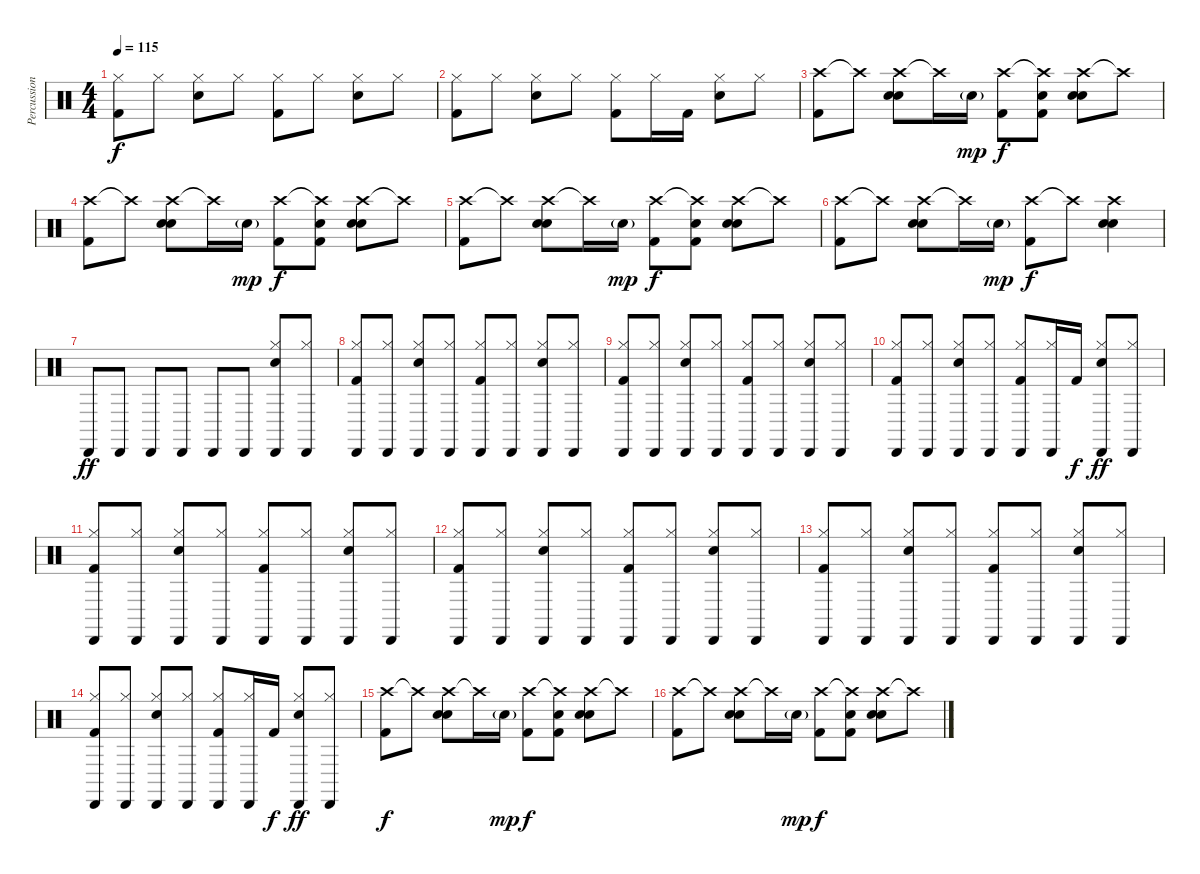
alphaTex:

\track ("Percussion" "Percussion") {instrument percussion}
\staff {score}
\articulation defaults
\ts (4 4)
\tempo 115
\clef neutral
\ks c
("Hi-Hat (closed)" "Kick (hit) 2").8{dy f} "Hi-Hat (closed)".8 ("Hi-Hat (closed)" "Snare (hit) 2").8 "Hi-Hat (closed)".8 ("Hi-Hat (closed)" "Kick (hit) 2").8 "Hi-Hat (closed)".8 ("Hi-Hat (closed)" "Snare (hit) 2").8 "Hi-Hat (closed)".8 |
("Hi-Hat (closed)" "Kick (hit) 2").8 "Hi-Hat (closed)".8 ("Hi-Hat (closed)" "Snare (hit) 2").8 "Hi-Hat (closed)".8 ("Hi-Hat (closed)" "Kick (hit) 2").8 "Hi-Hat (closed)".16 "Kick (hit) 2".16 ("Hi-Hat (closed)" "Snare (hit) 2").8 "Hi-Hat (closed)".8 |
("Crash high (hit)" "Kick (hit) 2").8 "Crash high (hit)"{t}.8 ("Crash high (hit)" "Hand Clap (hit)" "Snare (hit) 2").8 "Crash high (hit)"{t}.16 "Snare (hit) 2"{g}.16{dy mp} ("Crash high (hit)" "Kick (hit) 2").8{dy f} ("Crash high (hit)"{t} "Hand Clap (hit)" "Kick (hit) 2").8 ("Crash high (hit)" "Hand Clap (hit)" "Snare (hit) 2").8 "Crash high (hit)"{t}.8 |
("Crash high (hit)" "Kick (hit) 2").8 "Crash high (hit)"{t}.8 ("Crash high (hit)" "Hand Clap (hit)" "Snare (hit) 2").8 "Crash high (hit)"{t}.16 "Snare (hit) 2"{g}.16{dy mp} ("Crash high (hit)" "Kick (hit) 2").8{dy f} ("Crash high (hit)"{t} "Hand Clap (hit)" "Kick (hit) 2").8 ("Crash high (hit)" "Hand Clap (hit)" "Snare (hit) 2").8 "Crash high (hit)"{t}.8 |
("Crash high (hit)" "Kick (hit) 2").8 "Crash high (hit)"{t}.8 ("Crash high (hit)" "Hand Clap (hit)" "Snare (hit) 2").8 "Crash high (hit)"{t}.16 "Snare (hit) 2"{g}.16{dy mp} ("Crash high (hit)" "Kick (hit) 2").8{dy f} ("Crash high (hit)"{t} "Hand Clap (hit)" "Kick (hit) 2").8 ("Crash high (hit)" "Hand Clap (hit)" "Snare (hit) 2").8 "Crash high (hit)"{t}.8 |
("Crash high (hit)" "Kick (hit) 2").8 "Crash high (hit)"{t}.8 ("Crash high (hit)" "Hand Clap (hit)" "Snare (hit) 2").8 "Crash high (hit)"{t}.16 "Snare (hit) 2"{g}.16{dy mp} ("Crash high (hit)" "Kick (hit) 2").8{dy f} "Crash high (hit)"{t}.8 ("Crash high (hit)" "Hand Clap (hit)" "Snare (hit) 2").4 |
"Cabasa (hit)".8{dy ff} "Cabasa (hit)".8 "Cabasa (hit)".8 "Cabasa (hit)".8 "Cabasa (hit)".8 "Cabasa (hit)".8 ("Hi-Hat (closed)" "Cabasa (hit)" "Snare (hit) 2").8 ("Hi-Hat (closed)" "Cabasa (hit)").8 |
("Hi-Hat (closed)" "Cabasa (hit)" "Kick (hit) 2").8 ("Hi-Hat (closed)" "Cabasa (hit)").8 ("Hi-Hat (closed)" "Cabasa (hit)" "Snare (hit) 2").8 ("Hi-Hat (closed)" "Cabasa (hit)").8 ("Hi-Hat (closed)" "Cabasa (hit)" "Kick (hit) 2").8 ("Hi-Hat (closed)" "Cabasa (hit)").8 ("Hi-Hat (closed)" "Cabasa (hit)" "Snare (hit) 2").8 ("Hi-Hat (closed)" "Cabasa (hit)").8 |
("Hi-Hat (closed)" "Cabasa (hit)" "Kick (hit) 2").8 ("Hi-Hat (closed)" "Cabasa (hit)").8 ("Hi-Hat (closed)" "Cabasa (hit)" "Snare (hit) 2").8 ("Hi-Hat (closed)" "Cabasa (hit)").8 ("Hi-Hat (closed)" "Cabasa (hit)" "Kick (hit) 2").8 ("Hi-Hat (closed)" "Cabasa (hit)").8 ("Hi-Hat (closed)" "Cabasa (hit)" "Snare (hit) 2").8 ("Hi-Hat (closed)" "Cabasa (hit)").8 |
("Hi-Hat (closed)" "Cabasa (hit)" "Kick (hit) 2").8 ("Hi-Hat (closed)" "Cabasa (hit)").8 ("Hi-Hat (closed)" "Cabasa (hit)" "Snare (hit) 2").8 ("Hi-Hat (closed)" "Cabasa (hit)").8 ("Hi-Hat (closed)" "Cabasa (hit)" "Kick (hit) 2").8 ("Hi-Hat (closed)" "Cabasa (hit)").16 "Kick (hit) 2".16{dy f} ("Hi-Hat (closed)" "Cabasa (hit)" "Snare (hit) 2").8{dy ff} ("Hi-Hat (closed)" "Cabasa (hit)").8 |
("Hi-Hat (closed)" "Cabasa (hit)" "Kick (hit) 2").8 ("Hi-Hat (closed)" "Cabasa (hit)").8 ("Hi-Hat (closed)" "Cabasa (hit)" "Snare (hit) 2").8 ("Hi-Hat (closed)" "Cabasa (hit)").8 ("Hi-Hat (closed)" "Cabasa (hit)" "Kick (hit) 2").8 ("Hi-Hat (closed)" "Cabasa (hit)").8 ("Hi-Hat (closed)" "Cabasa (hit)" "Snare (hit) 2").8 ("Hi-Hat (closed)" "Cabasa (hit)").8 |
("Hi-Hat (closed)" "Cabasa (hit)" "Kick (hit) 2").8 ("Hi-Hat (closed)" "Cabasa (hit)").8 ("Hi-Hat (closed)" "Cabasa (hit)" "Snare (hit) 2").8 ("Hi-Hat (closed)" "Cabasa (hit)").8 ("Hi-Hat (closed)" "Cabasa (hit)" "Kick (hit) 2").8 ("Hi-Hat (closed)" "Cabasa (hit)").8 ("Hi-Hat (closed)" "Cabasa (hit)" "Snare (hit) 2").8 ("Hi-Hat (closed)" "Cabasa (hit)").8 |
("Hi-Hat (closed)" "Cabasa (hit)" "Kick (hit) 2").8 ("Hi-Hat (closed)" "Cabasa (hit)").8 ("Hi-Hat (closed)" "Cabasa (hit)" "Snare (hit) 2").8 ("Hi-Hat (closed)" "Cabasa (hit)").8 ("Hi-Hat (closed)" "Cabasa (hit)" "Kick (hit) 2").8 ("Hi-Hat (closed)" "Cabasa (hit)").8 ("Hi-Hat (closed)" "Cabasa (hit)" "Snare (hit) 2").8 ("Hi-Hat (closed)" "Cabasa (hit)").8 |
("Hi-Hat (closed)" "Cabasa (hit)" "Kick (hit) 2").8 ("Hi-Hat (closed)" "Cabasa (hit)").8 ("Hi-Hat (closed)" "Cabasa (hit)" "Snare (hit) 2").8 ("Hi-Hat (closed)" "Cabasa (hit)").8 ("Hi-Hat (closed)" "Cabasa (hit)" "Kick (hit) 2").8 ("Hi-Hat (closed)" "Cabasa (hit)").16 "Kick (hit) 2".16{dy f} ("Hi-Hat (closed)" "Cabasa (hit)" "Snare (hit) 2").8{dy ff} ("Hi-Hat (closed)" "Cabasa (hit)").8 |
("Crash high (hit)" "Kick (hit) 2").8{dy f} "Crash high (hit)"{t}.8 ("Crash high (hit)" "Hand Clap (hit)" "Snare (hit) 2").8 "Crash high (hit)"{t}.16 "Snare (hit) 2"{g}.16{dy mp} ("Crash high (hit)" "Kick (hit) 2").8{dy f} ("Crash high (hit)"{t} "Hand Clap (hit)" "Kick (hit) 2").8 ("Crash high (hit)" "Hand Clap (hit)" "Snare (hit) 2").8 "Crash high (hit)"{t}.8 |
("Crash high (hit)" "Kick (hit) 2").8 "Crash high (hit)"{t}.8 ("Crash high (hit)" "Hand Clap (hit)" "Snare (hit) 2").8 "Crash high (hit)"{t}.16 "Snare (hit) 2"{g}.16{dy mp} ("Crash high (hit)" "Kick (hit) 2").8{dy f} ("Crash high (hit)"{t} "Hand Clap (hit)" "Kick (hit) 2").8 ("Crash high (hit)" "Hand Clap (hit)" "Snare (hit) 2").8 "Crash high (hit)"{t}.8
